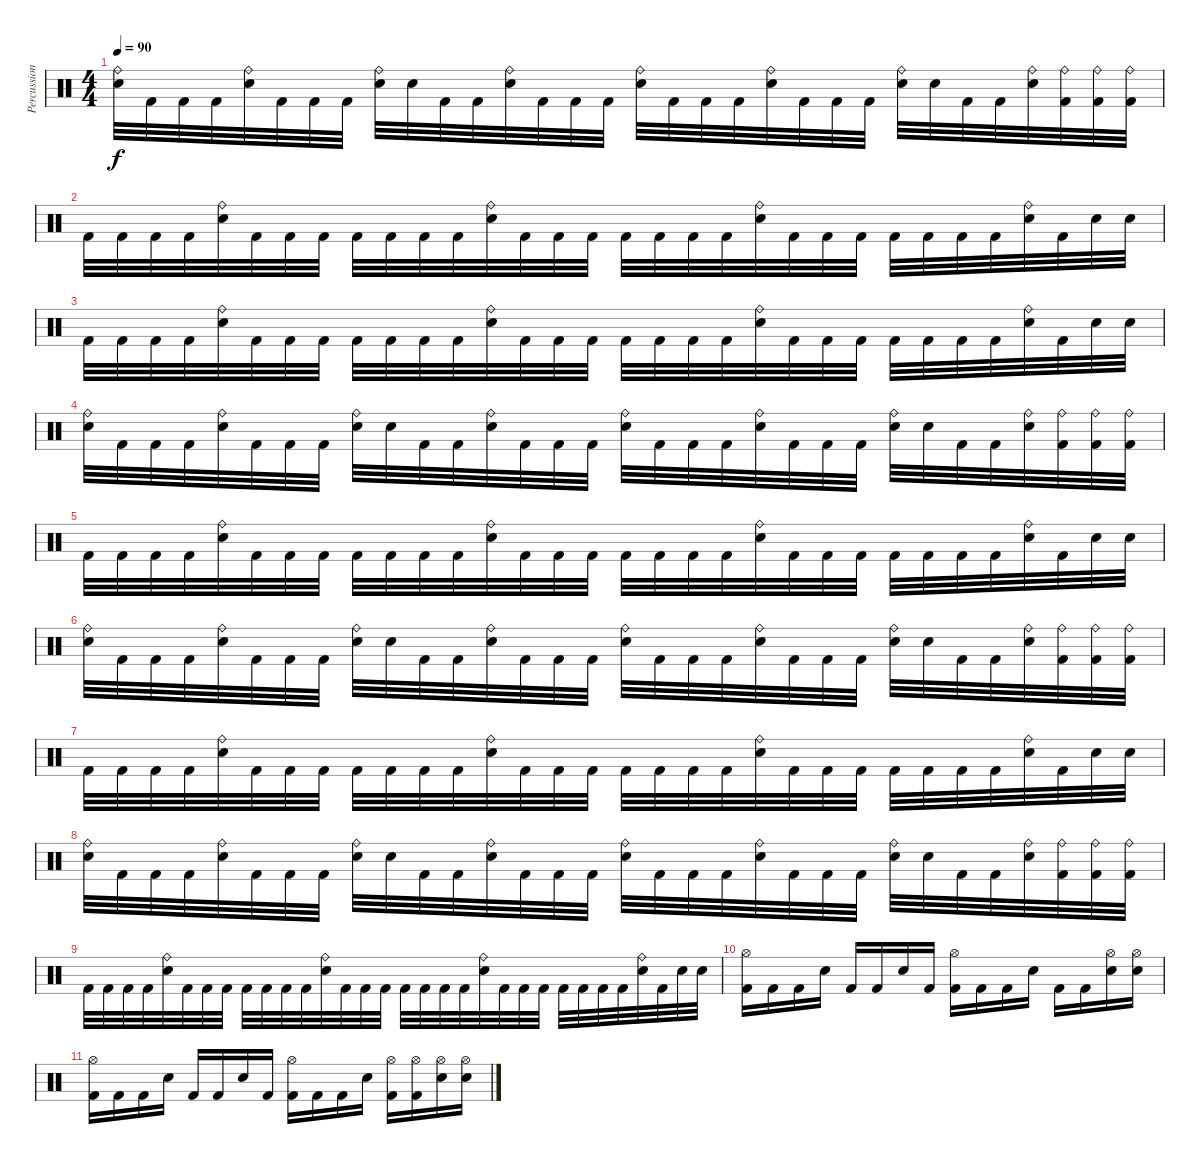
\track ("Percussions" "Percussion") {instrument percussion}
\staff {score}
\articulation defaults
\ts (4 4)
\tempo 90
\clef neutral
\ks c
("Ride (bell)" "Electric Snare (hit)").32{dy f} "Kick (hit) 2".32 "Kick (hit) 2".32 "Kick (hit) 2".32 ("Ride (bell)" "Electric Snare (hit)").32 "Kick (hit) 2".32 "Kick (hit) 2".32 "Kick (hit) 2".32 ("Ride (bell)" "Electric Snare (hit)").32 "Electric Snare (hit)".32 "Kick (hit) 2".32 "Kick (hit) 2".32 ("Ride (bell)" "Electric Snare (hit)").32 "Kick (hit) 2".32 "Kick (hit) 2".32 "Kick (hit) 2".32 ("Ride (bell)" "Electric Snare (hit)").32 "Kick (hit) 2".32 "Kick (hit) 2".32 "Kick (hit) 2".32 ("Ride (bell)" "Electric Snare (hit)").32 "Kick (hit) 2".32 "Kick (hit) 2".32 "Kick (hit) 2".32 ("Ride (bell)" "Electric Snare (hit)").32 "Electric Snare (hit)".32 "Kick (hit) 2".32 "Kick (hit) 2".32 ("Ride (bell)" "Electric Snare (hit)").32 ("Ride (bell)" "Kick (hit) 2").32 ("Ride (bell)" "Kick (hit) 2").32 ("Ride (bell)" "Kick (hit) 2").32 |
"Kick (hit) 2".32 "Kick (hit) 2".32 "Kick (hit) 2".32 "Kick (hit) 2".32 ("Ride (bell)" "Electric Snare (hit)").32 "Kick (hit) 2".32 "Kick (hit) 2".32 "Kick (hit) 2".32 "Kick (hit) 2".32 "Kick (hit) 2".32 "Kick (hit) 2".32 "Kick (hit) 2".32 ("Ride (bell)" "Electric Snare (hit)").32 "Kick (hit) 2".32 "Kick (hit) 2".32 "Kick (hit) 2".32 "Kick (hit) 2".32 "Kick (hit) 2".32 "Kick (hit) 2".32 "Kick (hit) 2".32 ("Ride (bell)" "Electric Snare (hit)").32 "Kick (hit) 2".32 "Kick (hit) 2".32 "Kick (hit) 2".32 "Kick (hit) 2".32 "Kick (hit) 2".32 "Kick (hit) 2".32 "Kick (hit) 2".32 ("Ride (bell)" "Electric Snare (hit)").32 "Kick (hit) 2".32 "Electric Snare (hit)".32 "Electric Snare (hit)".32 |
"Kick (hit) 2".32 "Kick (hit) 2".32 "Kick (hit) 2".32 "Kick (hit) 2".32 ("Ride (bell)" "Electric Snare (hit)").32 "Kick (hit) 2".32 "Kick (hit) 2".32 "Kick (hit) 2".32 "Kick (hit) 2".32 "Kick (hit) 2".32 "Kick (hit) 2".32 "Kick (hit) 2".32 ("Ride (bell)" "Electric Snare (hit)").32 "Kick (hit) 2".32 "Kick (hit) 2".32 "Kick (hit) 2".32 "Kick (hit) 2".32 "Kick (hit) 2".32 "Kick (hit) 2".32 "Kick (hit) 2".32 ("Ride (bell)" "Electric Snare (hit)").32 "Kick (hit) 2".32 "Kick (hit) 2".32 "Kick (hit) 2".32 "Kick (hit) 2".32 "Kick (hit) 2".32 "Kick (hit) 2".32 "Kick (hit) 2".32 ("Ride (bell)" "Electric Snare (hit)").32 "Kick (hit) 2".32 "Electric Snare (hit)".32 "Electric Snare (hit)".32 |
("Ride (bell)" "Electric Snare (hit)").32 "Kick (hit) 2".32 "Kick (hit) 2".32 "Kick (hit) 2".32 ("Ride (bell)" "Electric Snare (hit)").32 "Kick (hit) 2".32 "Kick (hit) 2".32 "Kick (hit) 2".32 ("Ride (bell)" "Electric Snare (hit)").32 "Electric Snare (hit)".32 "Kick (hit) 2".32 "Kick (hit) 2".32 ("Ride (bell)" "Electric Snare (hit)").32 "Kick (hit) 2".32 "Kick (hit) 2".32 "Kick (hit) 2".32 ("Ride (bell)" "Electric Snare (hit)").32 "Kick (hit) 2".32 "Kick (hit) 2".32 "Kick (hit) 2".32 ("Ride (bell)" "Electric Snare (hit)").32 "Kick (hit) 2".32 "Kick (hit) 2".32 "Kick (hit) 2".32 ("Ride (bell)" "Electric Snare (hit)").32 "Electric Snare (hit)".32 "Kick (hit) 2".32 "Kick (hit) 2".32 ("Ride (bell)" "Electric Snare (hit)").32 ("Ride (bell)" "Kick (hit) 2").32 ("Ride (bell)" "Kick (hit) 2").32 ("Ride (bell)" "Kick (hit) 2").32 |
"Kick (hit) 2".32 "Kick (hit) 2".32 "Kick (hit) 2".32 "Kick (hit) 2".32 ("Ride (bell)" "Electric Snare (hit)").32 "Kick (hit) 2".32 "Kick (hit) 2".32 "Kick (hit) 2".32 "Kick (hit) 2".32 "Kick (hit) 2".32 "Kick (hit) 2".32 "Kick (hit) 2".32 ("Ride (bell)" "Electric Snare (hit)").32 "Kick (hit) 2".32 "Kick (hit) 2".32 "Kick (hit) 2".32 "Kick (hit) 2".32 "Kick (hit) 2".32 "Kick (hit) 2".32 "Kick (hit) 2".32 ("Ride (bell)" "Electric Snare (hit)").32 "Kick (hit) 2".32 "Kick (hit) 2".32 "Kick (hit) 2".32 "Kick (hit) 2".32 "Kick (hit) 2".32 "Kick (hit) 2".32 "Kick (hit) 2".32 ("Ride (bell)" "Electric Snare (hit)").32 "Kick (hit) 2".32 "Electric Snare (hit)".32 "Electric Snare (hit)".32 |
("Ride (bell)" "Electric Snare (hit)").32 "Kick (hit) 2".32 "Kick (hit) 2".32 "Kick (hit) 2".32 ("Ride (bell)" "Electric Snare (hit)").32 "Kick (hit) 2".32 "Kick (hit) 2".32 "Kick (hit) 2".32 ("Ride (bell)" "Electric Snare (hit)").32 "Electric Snare (hit)".32 "Kick (hit) 2".32 "Kick (hit) 2".32 ("Ride (bell)" "Electric Snare (hit)").32 "Kick (hit) 2".32 "Kick (hit) 2".32 "Kick (hit) 2".32 ("Ride (bell)" "Electric Snare (hit)").32 "Kick (hit) 2".32 "Kick (hit) 2".32 "Kick (hit) 2".32 ("Ride (bell)" "Electric Snare (hit)").32 "Kick (hit) 2".32 "Kick (hit) 2".32 "Kick (hit) 2".32 ("Ride (bell)" "Electric Snare (hit)").32 "Electric Snare (hit)".32 "Kick (hit) 2".32 "Kick (hit) 2".32 ("Ride (bell)" "Electric Snare (hit)").32 ("Ride (bell)" "Kick (hit) 2").32 ("Ride (bell)" "Kick (hit) 2").32 ("Ride (bell)" "Kick (hit) 2").32 |
"Kick (hit) 2".32 "Kick (hit) 2".32 "Kick (hit) 2".32 "Kick (hit) 2".32 ("Ride (bell)" "Electric Snare (hit)").32 "Kick (hit) 2".32 "Kick (hit) 2".32 "Kick (hit) 2".32 "Kick (hit) 2".32 "Kick (hit) 2".32 "Kick (hit) 2".32 "Kick (hit) 2".32 ("Ride (bell)" "Electric Snare (hit)").32 "Kick (hit) 2".32 "Kick (hit) 2".32 "Kick (hit) 2".32 "Kick (hit) 2".32 "Kick (hit) 2".32 "Kick (hit) 2".32 "Kick (hit) 2".32 ("Ride (bell)" "Electric Snare (hit)").32 "Kick (hit) 2".32 "Kick (hit) 2".32 "Kick (hit) 2".32 "Kick (hit) 2".32 "Kick (hit) 2".32 "Kick (hit) 2".32 "Kick (hit) 2".32 ("Ride (bell)" "Electric Snare (hit)").32 "Kick (hit) 2".32 "Electric Snare (hit)".32 "Electric Snare (hit)".32 |
("Ride (bell)" "Electric Snare (hit)").32 "Kick (hit) 2".32 "Kick (hit) 2".32 "Kick (hit) 2".32 ("Ride (bell)" "Electric Snare (hit)").32 "Kick (hit) 2".32 "Kick (hit) 2".32 "Kick (hit) 2".32 ("Ride (bell)" "Electric Snare (hit)").32 "Electric Snare (hit)".32 "Kick (hit) 2".32 "Kick (hit) 2".32 ("Ride (bell)" "Electric Snare (hit)").32 "Kick (hit) 2".32 "Kick (hit) 2".32 "Kick (hit) 2".32 ("Ride (bell)" "Electric Snare (hit)").32 "Kick (hit) 2".32 "Kick (hit) 2".32 "Kick (hit) 2".32 ("Ride (bell)" "Electric Snare (hit)").32 "Kick (hit) 2".32 "Kick (hit) 2".32 "Kick (hit) 2".32 ("Ride (bell)" "Electric Snare (hit)").32 "Electric Snare (hit)".32 "Kick (hit) 2".32 "Kick (hit) 2".32 ("Ride (bell)" "Electric Snare (hit)").32 ("Ride (bell)" "Kick (hit) 2").32 ("Ride (bell)" "Kick (hit) 2").32 ("Ride (bell)" "Kick (hit) 2").32 |
"Kick (hit) 2".32 "Kick (hit) 2".32 "Kick (hit) 2".32 "Kick (hit) 2".32 ("Ride (bell)" "Electric Snare (hit)").32 "Kick (hit) 2".32 "Kick (hit) 2".32 "Kick (hit) 2".32 "Kick (hit) 2".32 "Kick (hit) 2".32 "Kick (hit) 2".32 "Kick (hit) 2".32 ("Ride (bell)" "Electric Snare (hit)").32 "Kick (hit) 2".32 "Kick (hit) 2".32 "Kick (hit) 2".32 "Kick (hit) 2".32 "Kick (hit) 2".32 "Kick (hit) 2".32 "Kick (hit) 2".32 ("Ride (bell)" "Electric Snare (hit)").32 "Kick (hit) 2".32 "Kick (hit) 2".32 "Kick (hit) 2".32 "Kick (hit) 2".32 "Kick (hit) 2".32 "Kick (hit) 2".32 "Kick (hit) 2".32 ("Ride (bell)" "Electric Snare (hit)").32 "Kick (hit) 2".32 "Electric Snare (hit)".32 "Electric Snare (hit)".32 |
("Hi-Hat (open)" "Kick (hit) 2").16 "Kick (hit) 2".16 "Kick (hit) 2".16 "Electric Snare (hit)".16 "Kick (hit) 2".16 "Kick (hit) 2".16 "Electric Snare (hit)".16 "Kick (hit) 2".16 ("Hi-Hat (open)" "Kick (hit) 2").16 "Kick (hit) 2".16 "Kick (hit) 2".16 "Electric Snare (hit)".16 "Kick (hit) 2".16 "Kick (hit) 2".16 ("Hi-Hat (open)" "Electric Snare (hit)").16 ("Hi-Hat (open)" "Electric Snare (hit)").16 |
("Hi-Hat (open)" "Kick (hit) 2").16 "Kick (hit) 2".16 "Kick (hit) 2".16 "Electric Snare (hit)".16 "Kick (hit) 2".16 "Kick (hit) 2".16 "Electric Snare (hit)".16 "Kick (hit) 2".16 ("Hi-Hat (open)" "Kick (hit) 2").16 "Kick (hit) 2".16 "Kick (hit) 2".16 "Electric Snare (hit)".16 ("Hi-Hat (open)" "Kick (hit) 2").16 ("Hi-Hat (open)" "Kick (hit) 2").16 ("Hi-Hat (open)" "Electric Snare (hit)").16 ("Hi-Hat (open)" "Electric Snare (hit)").16
